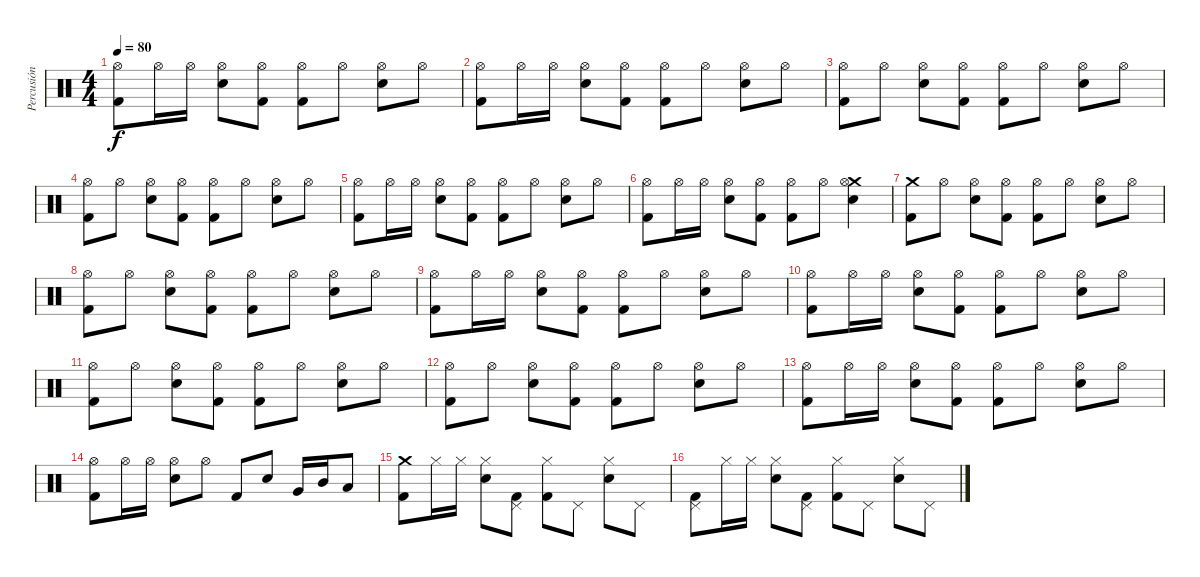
\track ("Percusión" "Percusión") {instrument percussion}
\staff {score}
\articulation defaults
\ts (4 4)
\tempo 80
\clef neutral
\ks c
("Hi-Hat (open)" "Kick (hit) 2").8{dy f} "Hi-Hat (open)".16 "Hi-Hat (open)".16 ("Hi-Hat (open)" "Snare (hit) 2").8 ("Hi-Hat (open)" "Kick (hit) 2").8 ("Hi-Hat (open)" "Kick (hit) 2").8 "Hi-Hat (open)".8 ("Hi-Hat (open)" "Snare (hit) 2").8 "Hi-Hat (open)".8 |
("Hi-Hat (open)" "Kick (hit) 2").8 "Hi-Hat (open)".16 "Hi-Hat (open)".16 ("Hi-Hat (open)" "Snare (hit) 2").8 ("Hi-Hat (open)" "Kick (hit) 2").8 ("Hi-Hat (open)" "Kick (hit) 2").8 "Hi-Hat (open)".8 ("Hi-Hat (open)" "Snare (hit) 2").8 "Hi-Hat (open)".8 |
("Hi-Hat (open)" "Kick (hit) 2").8 "Hi-Hat (open)".8 ("Hi-Hat (open)" "Snare (hit) 2").8 ("Hi-Hat (open)" "Kick (hit) 2").8 ("Hi-Hat (open)" "Kick (hit) 2").8 "Hi-Hat (open)".8 ("Hi-Hat (open)" "Snare (hit) 2").8 "Hi-Hat (open)".8 |
("Hi-Hat (open)" "Kick (hit) 2").8 "Hi-Hat (open)".8 ("Hi-Hat (open)" "Snare (hit) 2").8 ("Hi-Hat (open)" "Kick (hit) 2").8 ("Hi-Hat (open)" "Kick (hit) 2").8 "Hi-Hat (open)".8 ("Hi-Hat (open)" "Snare (hit) 2").8 "Hi-Hat (open)".8 |
("Hi-Hat (open)" "Kick (hit) 2").8 "Hi-Hat (open)".16 "Hi-Hat (open)".16 ("Hi-Hat (open)" "Snare (hit) 2").8 ("Hi-Hat (open)" "Kick (hit) 2").8 ("Hi-Hat (open)" "Kick (hit) 2").8 "Hi-Hat (open)".8 ("Hi-Hat (open)" "Snare (hit) 2").8 "Hi-Hat (open)".8 |
("Hi-Hat (open)" "Kick (hit) 2").8 "Hi-Hat (open)".16 "Hi-Hat (open)".16 ("Hi-Hat (open)" "Snare (hit) 2").8 ("Hi-Hat (open)" "Kick (hit) 2").8 ("Hi-Hat (open)" "Kick (hit) 2").8 "Hi-Hat (open)".8 ("Crash medium (hit)" "Hi-Hat (open)" "Snare (hit) 2").4 |
("Crash medium (hit)" "Kick (hit) 2").8 "Hi-Hat (open)".8 ("Hi-Hat (open)" "Snare (hit) 2").8 ("Hi-Hat (open)" "Kick (hit) 2").8 ("Hi-Hat (open)" "Kick (hit) 2").8 "Hi-Hat (open)".8 ("Hi-Hat (open)" "Snare (hit) 2").8 "Hi-Hat (open)".8 |
("Hi-Hat (open)" "Kick (hit) 2").8 "Hi-Hat (open)".8 ("Hi-Hat (open)" "Snare (hit) 2").8 ("Hi-Hat (open)" "Kick (hit) 2").8 ("Hi-Hat (open)" "Kick (hit) 2").8 "Hi-Hat (open)".8 ("Hi-Hat (open)" "Snare (hit) 2").8 "Hi-Hat (open)".8 |
("Hi-Hat (open)" "Kick (hit) 2").8 "Hi-Hat (open)".16 "Hi-Hat (open)".16 ("Hi-Hat (open)" "Snare (hit) 2").8 ("Hi-Hat (open)" "Kick (hit) 2").8 ("Hi-Hat (open)" "Kick (hit) 2").8 "Hi-Hat (open)".8 ("Hi-Hat (open)" "Snare (hit) 2").8 "Hi-Hat (open)".8 |
("Hi-Hat (open)" "Kick (hit) 2").8 "Hi-Hat (open)".16 "Hi-Hat (open)".16 ("Hi-Hat (open)" "Snare (hit) 2").8 ("Hi-Hat (open)" "Kick (hit) 2").8 ("Hi-Hat (open)" "Kick (hit) 2").8 "Hi-Hat (open)".8 ("Hi-Hat (open)" "Snare (hit) 2").8 "Hi-Hat (open)".8 |
("Hi-Hat (open)" "Kick (hit) 2").8 "Hi-Hat (open)".8 ("Hi-Hat (open)" "Snare (hit) 2").8 ("Hi-Hat (open)" "Kick (hit) 2").8 ("Hi-Hat (open)" "Kick (hit) 2").8 "Hi-Hat (open)".8 ("Hi-Hat (open)" "Snare (hit) 2").8 "Hi-Hat (open)".8 |
("Hi-Hat (open)" "Kick (hit) 2").8 "Hi-Hat (open)".8 ("Hi-Hat (open)" "Snare (hit) 2").8 ("Hi-Hat (open)" "Kick (hit) 2").8 ("Hi-Hat (open)" "Kick (hit) 2").8 "Hi-Hat (open)".8 ("Hi-Hat (open)" "Snare (hit) 2").8 "Hi-Hat (open)".8 |
("Hi-Hat (open)" "Kick (hit) 2").8 "Hi-Hat (open)".16 "Hi-Hat (open)".16 ("Hi-Hat (open)" "Snare (hit) 2").8 ("Hi-Hat (open)" "Kick (hit) 2").8 ("Hi-Hat (open)" "Kick (hit) 2").8 "Hi-Hat (open)".8 ("Hi-Hat (open)" "Snare (hit) 2").8 "Hi-Hat (open)".8 |
("Hi-Hat (open)" "Kick (hit) 2").8 "Hi-Hat (open)".16 "Hi-Hat (open)".16 ("Hi-Hat (open)" "Snare (hit) 2").8 "Hi-Hat (open)".8 "Kick (hit) 2".8 "Snare (hit) 2".8 "Very Low Tom (hit)".16 "Mid Tom (hit)".16 "Low Tom (hit)".8 |
("Crash medium (hit)" "Kick (hit) 2").8 "Hi-Hat (closed)".16 "Hi-Hat (closed)".16 ("Hi-Hat (closed)" "Snare (hit) 2").8 ("Pedal Hi-Hat (hit)" "Kick (hit) 2").8 ("Hi-Hat (closed)" "Kick (hit) 2").8 "Pedal Hi-Hat (hit)".8 ("Hi-Hat (closed)" "Snare (hit) 2").8 "Pedal Hi-Hat (hit)".8 |
("Pedal Hi-Hat (hit)" "Kick (hit) 2").8 "Hi-Hat (closed)".16 "Hi-Hat (closed)".16 ("Hi-Hat (closed)" "Snare (hit) 2").8 ("Pedal Hi-Hat (hit)" "Kick (hit) 2").8 ("Hi-Hat (closed)" "Kick (hit) 2").8 "Pedal Hi-Hat (hit)".8 ("Hi-Hat (closed)" "Snare (hit) 2").8 "Pedal Hi-Hat (hit)".8
